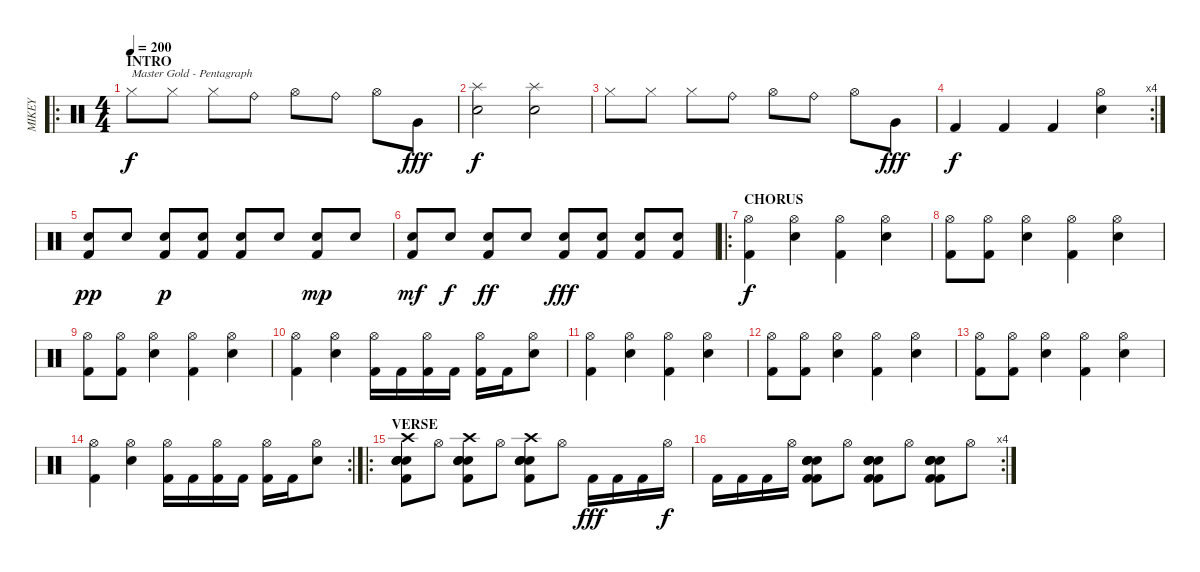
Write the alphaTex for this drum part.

\track ("MIKEY" "MIKEY") {instrument percussion}
\staff {score}
\articulation defaults
\ro
\ts (4 4)
\section ("" "INTRO")
\tempo 200
\clef neutral
\ks c "Hi-Hat (closed)".8{txt "Master Gold - Pentagraph" dy f} "Hi-Hat (closed)".8 "Hi-Hat (closed)".8 "Ride (bell)".8 "Hi-Hat (open)".8 "Ride (bell)".8 "Hi-Hat (open)".8 "Very Low Tom (hit)".8{dy fff}
|
("Splash (hit)" "Electric Snare (hit)").2{dy f} ("Splash (hit)" "Electric Snare (hit)").2 |
"Hi-Hat (closed)".8 "Hi-Hat (closed)".8 "Hi-Hat (closed)".8 "Ride (bell)".8 "Hi-Hat (open)".8 "Ride (bell)".8 "Hi-Hat (open)".8 "Very Low Tom (hit)".8{dy fff} |
\rc 4 "Kick (hit) 2".4{dy f} "Kick (hit) 2".4 "Kick (hit) 2".4
("Hi-Hat (open)" "Snare (hit) 2").4 |
("Kick (hit) 2" "Electric Snare (hit)").8{dy pp} "Electric Snare (hit)".8 ("Kick (hit) 2" "Electric Snare (hit)").8{dy p} ("Kick (hit) 2" "Electric Snare (hit)").8 ("Kick (hit) 2" "Electric Snare (hit)").8 "Electric Snare (hit)".8 ("Kick (hit) 2" "Electric Snare (hit)").8{dy mp} "Electric Snare (hit)".8 |
("Kick (hit) 2" "Electric Snare (hit)").8{dy mf} "Electric Snare (hit)".8{dy f} ("Kick (hit) 2" "Electric Snare (hit)").8{dy ff} "Electric Snare (hit)".8 ("Kick (hit) 2" "Electric Snare (hit)").8{dy fff} ("Kick (hit) 2" "Electric Snare (hit)").8 ("Kick (hit) 2" "Electric Snare (hit)").8 ("Kick (hit) 2" "Electric Snare (hit)").8 |
\ro
\section ("" "CHORUS")
("Hi-Hat (open)" "Kick (hit) 2").4{dy f} ("Hi-Hat (open)" "Snare (hit) 2").4 ("Hi-Hat (open)" "Kick (hit) 2").4 ("Hi-Hat (open)" "Snare (hit) 2").4 |
("Hi-Hat (open)" "Kick (hit) 2").8 ("Hi-Hat (open)" "Kick (hit) 2").8 ("Hi-Hat (open)" "Snare (hit) 2").4 ("Hi-Hat (open)" "Kick (hit) 2").4 ("Hi-Hat (open)" "Snare (hit) 2").4 |
("Hi-Hat (open)" "Kick (hit) 2").8 ("Hi-Hat (open)" "Kick (hit) 2").8 ("Hi-Hat (open)" "Snare (hit) 2").4 ("Hi-Hat (open)" "Kick (hit) 2").4 ("Hi-Hat (open)" "Snare (hit) 2").4 |
("Hi-Hat (open)" "Kick (hit) 2").4 ("Hi-Hat (open)" "Snare (hit) 2").4 ("Hi-Hat (open)" "Kick (hit) 2").16 "Kick (hit) 2".16 ("Hi-Hat (open)" "Kick (hit) 2").16 "Kick (hit) 2".16 ("Hi-Hat (open)" "Kick (hit) 2").16 "Kick (hit) 2".16 ("Hi-Hat (open)" "Snare (hit) 2").8 |
("Hi-Hat (open)" "Kick (hit) 2").4 ("Hi-Hat (open)" "Snare (hit) 2").4 ("Hi-Hat (open)" "Kick (hit) 2").4 ("Hi-Hat (open)" "Snare (hit) 2").4 |
("Hi-Hat (open)" "Kick (hit) 2").8 ("Hi-Hat (open)" "Kick (hit) 2").8 ("Hi-Hat (open)" "Snare (hit) 2").4 ("Hi-Hat (open)" "Kick (hit) 2").4 ("Hi-Hat (open)" "Snare (hit) 2").4 |
("Hi-Hat (open)" "Kick (hit) 2").8 ("Hi-Hat (open)" "Kick (hit) 2").8 ("Hi-Hat (open)" "Snare (hit) 2").4 ("Hi-Hat (open)" "Kick (hit) 2").4 ("Hi-Hat (open)" "Snare (hit) 2").4 |
\rc 2
("Hi-Hat (open)" "Kick (hit) 2").4 ("Hi-Hat (open)" "Snare (hit) 2").4 ("Hi-Hat (open)" "Kick (hit) 2").16 "Kick (hit) 2".16 ("Hi-Hat (open)" "Kick (hit) 2").16 "Kick (hit) 2".16 ("Hi-Hat (open)" "Kick (hit) 2").16 "Kick (hit) 2".16 ("Hi-Hat (open)" "Snare (hit) 2").8 |
\ro
\section ("" "VERSE")
("Electric Snare (hit)" "Snare (hit) 2" "Kick (hit) 2" "Crash high (hit)" "Snare (hit) 2" "Electric Snare (hit)").8 "Hi-Hat (open)".8 ("Electric Snare (hit)" "Snare (hit) 2" "Kick (hit) 2" "Crash high (hit)" "Snare (hit) 2" "Electric Snare (hit)").8 "Hi-Hat (open)".8 ("Electric Snare (hit)" "Snare (hit) 2" "Kick (hit) 2" "Crash high (hit)" "Snare (hit) 2" "Electric Snare (hit)").8 "Hi-Hat (open)".8 "Kick (hit) 2".16{dy fff} "Kick (hit) 2".16 "Kick (hit) 2".16 "Hi-Hat (open)".16{dy f} |
\rc 4 "Kick (hit) 2".16 "Kick (hit) 2".16 "Kick (hit) 2".16 "Hi-Hat (open)".16
("Electric Snare (hit)" "Snare (hit) 2" "Kick (hit) 2" "Kick (hit) 2" "Snare (hit) 2" "Electric Snare (hit)").8 "Hi-Hat (open)".8 ("Electric Snare (hit)" "Snare (hit) 2" "Kick (hit) 2" "Kick (hit) 2" "Snare (hit) 2" "Electric Snare (hit)").8 "Hi-Hat (open)".8 ("Electric Snare (hit)" "Snare (hit) 2" "Kick (hit) 2" "Kick (hit) 2" "Snare (hit) 2" "Electric Snare (hit)").8 "Hi-Hat (open)".8
